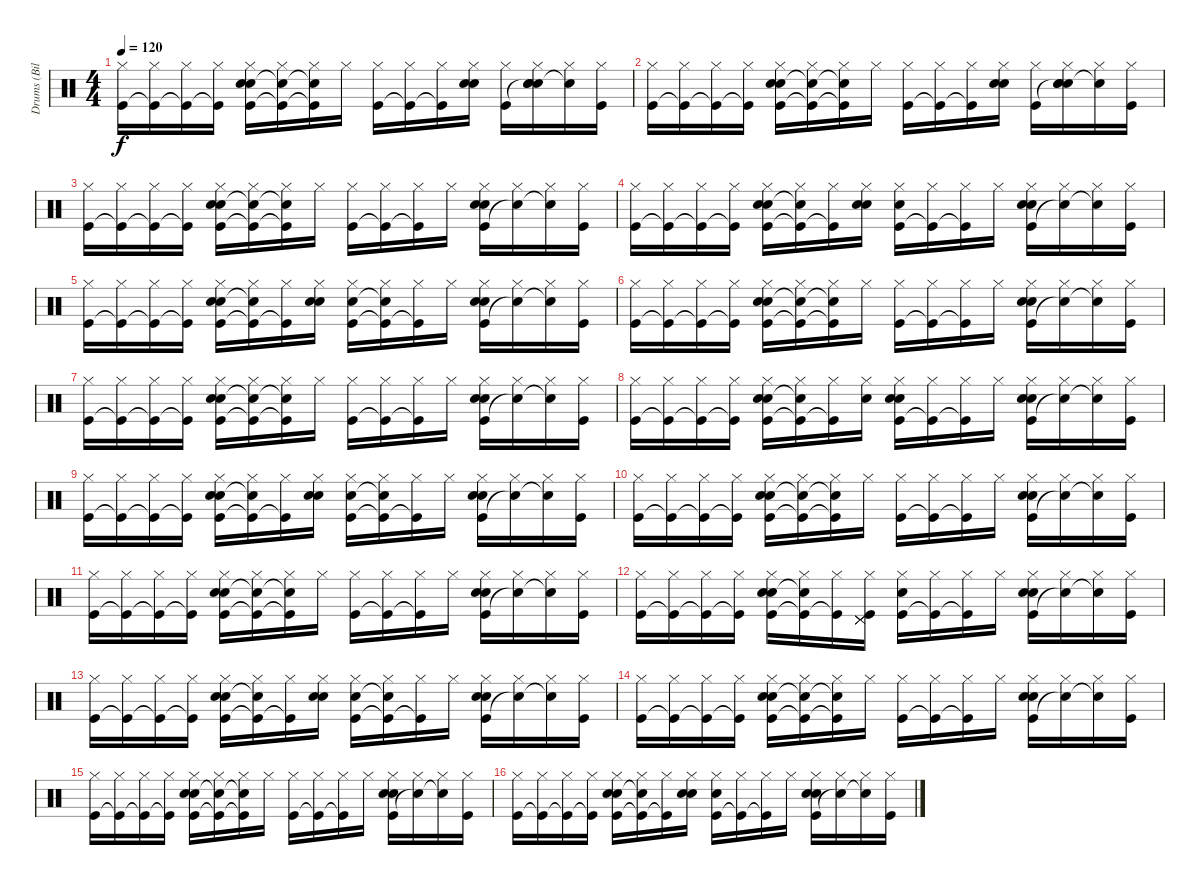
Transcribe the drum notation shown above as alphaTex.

\track ("Drums (Bilerman)" "Drums (Bil") {instrument percussion}
\staff {score}
\articulation defaults
\ts (4 4)
\tempo 120
\clef neutral
\ks c
("Kick (hit)" "Hi-Hat (closed)").16{dy f} ("Kick (hit)"{t} "Hi-Hat (closed)").16 ("Kick (hit)"{t} "Hi-Hat (closed)").16 ("Kick (hit)"{t} "Hi-Hat (closed)").16 ("Kick (hit)" "Snare (hit) 2" "Snare (hit) 2" "Hi-Hat (closed)").16 ("Kick (hit)"{t} "Snare (hit) 2"{t} "Hi-Hat (closed)").16 ("Kick (hit)"{t} "Snare (hit) 2"{t} "Hi-Hat (closed)").16 "Hi-Hat (closed)".16 ("Kick (hit)" "Hi-Hat (closed)").16 ("Kick (hit)"{t} "Hi-Hat (closed)").16 ("Kick (hit)"{t} "Hi-Hat (closed)").16 ("Snare (hit) 2" "Snare (hit) 2" "Hi-Hat (closed)").16 ("Kick (hit)" "Hi-Hat (closed)").16 ("Snare (hit)"{t} "Snare (hit) 2" "Snare (hit) 2" "Hi-Hat (closed)").16 ("Snare (hit) 2"{t} "Hi-Hat (closed)").16 ("Kick (hit)" "Hi-Hat (closed)").16 |
("Kick (hit)" "Hi-Hat (closed)").16 ("Kick (hit)"{t} "Hi-Hat (closed)").16 ("Kick (hit)"{t} "Hi-Hat (closed)").16 ("Kick (hit)"{t} "Hi-Hat (closed)").16 ("Kick (hit)" "Snare (hit) 2" "Snare (hit) 2" "Hi-Hat (closed)").16 ("Kick (hit)"{t} "Snare (hit) 2"{t} "Hi-Hat (closed)").16 ("Kick (hit)"{t} "Snare (hit) 2"{t} "Hi-Hat (closed)").16 "Hi-Hat (closed)".16 ("Kick (hit)" "Hi-Hat (closed)").16 ("Kick (hit)"{t} "Hi-Hat (closed)").16 ("Kick (hit)"{t} "Hi-Hat (closed)").16 ("Snare (hit) 2" "Snare (hit) 2" "Hi-Hat (closed)").16 ("Kick (hit)" "Hi-Hat (closed)").16 ("Snare (hit)"{t} "Snare (hit) 2" "Snare (hit) 2" "Hi-Hat (closed)").16 ("Snare (hit) 2"{t} "Hi-Hat (closed)").16 ("Kick (hit)" "Hi-Hat (closed)").16 |
("Kick (hit)" "Hi-Hat (closed)").16 ("Kick (hit)"{t} "Hi-Hat (closed)").16 ("Kick (hit)"{t} "Hi-Hat (closed)").16 ("Kick (hit)"{t} "Hi-Hat (closed)").16 ("Kick (hit)" "Snare (hit) 2" "Snare (hit) 2" "Hi-Hat (closed)").16 ("Kick (hit)"{t} "Snare (hit) 2"{t} "Hi-Hat (closed)").16 ("Kick (hit)"{t} "Snare (hit) 2"{t} "Hi-Hat (closed)").16 "Hi-Hat (closed)".16 ("Kick (hit)" "Hi-Hat (closed)").16 ("Kick (hit)"{t} "Hi-Hat (closed)").16 ("Kick (hit)"{t} "Hi-Hat (closed)").16 "Hi-Hat (closed)".16 ("Kick (hit)" "Snare (hit) 2" "Snare (hit) 2" "Hi-Hat (closed)").16 ("Snare (hit)"{t} "Hi-Hat (closed)").16 ("Snare (hit) 2"{t} "Hi-Hat (closed)").16 ("Kick (hit)" "Hi-Hat (closed)").16 |
("Kick (hit)" "Hi-Hat (closed)").16 ("Kick (hit)"{t} "Hi-Hat (closed)").16 ("Kick (hit)"{t} "Hi-Hat (closed)").16 ("Kick (hit)"{t} "Hi-Hat (closed)").16 ("Kick (hit)" "Snare (hit) 2" "Snare (hit) 2" "Hi-Hat (closed)").16 ("Kick (hit)"{t} "Snare (hit) 2"{t} "Hi-Hat (closed)").16 ("Kick (hit)"{t} "Hi-Hat (closed)").16 ("Snare (hit) 2" "Snare (hit) 2" "Hi-Hat (closed)").16 ("Kick (hit)" "Snare (hit) 2" "Hi-Hat (closed)").16 ("Kick (hit)"{t} "Hi-Hat (closed)").16 ("Kick (hit)"{t} "Hi-Hat (closed)").16 "Hi-Hat (closed)".16 ("Kick (hit)" "Snare (hit) 2" "Snare (hit) 2" "Hi-Hat (closed)").16 ("Snare (hit)"{t} "Hi-Hat (closed)").16 ("Snare (hit) 2"{t} "Hi-Hat (closed)").16 ("Kick (hit)" "Hi-Hat (closed)").16 |
("Kick (hit)" "Hi-Hat (closed)").16 ("Kick (hit)"{t} "Hi-Hat (closed)").16 ("Kick (hit)"{t} "Hi-Hat (closed)").16 ("Kick (hit)"{t} "Hi-Hat (closed)").16 ("Kick (hit)" "Snare (hit) 2" "Snare (hit) 2" "Hi-Hat (closed)").16 ("Kick (hit)"{t} "Snare (hit) 2"{t} "Hi-Hat (closed)").16 ("Kick (hit)"{t} "Hi-Hat (closed)").16 ("Snare (hit) 2" "Snare (hit) 2" "Hi-Hat (closed)").16 ("Kick (hit)" "Snare (hit) 2" "Hi-Hat (closed)").16 ("Kick (hit)"{t} "Snare (hit)"{t} "Hi-Hat (closed)").16 ("Kick (hit)"{t} "Hi-Hat (closed)").16 "Hi-Hat (closed)".16 ("Kick (hit)" "Snare (hit) 2" "Snare (hit) 2" "Hi-Hat (closed)").16 ("Snare (hit)"{t} "Hi-Hat (closed)").16 ("Snare (hit) 2"{t} "Hi-Hat (closed)").16 ("Kick (hit)" "Hi-Hat (closed)").16 |
("Kick (hit)" "Hi-Hat (closed)").16 ("Kick (hit)"{t} "Hi-Hat (closed)").16 ("Kick (hit)"{t} "Hi-Hat (closed)").16 ("Kick (hit)"{t} "Hi-Hat (closed)").16 ("Kick (hit)" "Snare (hit) 2" "Snare (hit) 2" "Hi-Hat (closed)").16 ("Kick (hit)"{t} "Snare (hit) 2"{t} "Hi-Hat (closed)").16 ("Kick (hit)"{t} "Snare (hit) 2"{t} "Hi-Hat (closed)").16 "Hi-Hat (closed)".16 ("Kick (hit)" "Hi-Hat (closed)").16 ("Kick (hit)"{t} "Hi-Hat (closed)").16 ("Kick (hit)"{t} "Hi-Hat (closed)").16 "Hi-Hat (closed)".16 ("Kick (hit)" "Snare (hit) 2" "Snare (hit) 2" "Hi-Hat (closed)").16 ("Snare (hit)"{t} "Hi-Hat (closed)").16 ("Snare (hit) 2"{t} "Hi-Hat (closed)").16 ("Kick (hit)" "Hi-Hat (closed)").16 |
("Kick (hit)" "Hi-Hat (closed)").16 ("Kick (hit)"{t} "Hi-Hat (closed)").16 ("Kick (hit)"{t} "Hi-Hat (closed)").16 ("Kick (hit)"{t} "Hi-Hat (closed)").16 ("Kick (hit)" "Snare (hit) 2" "Snare (hit) 2" "Hi-Hat (closed)").16 ("Kick (hit)"{t} "Snare (hit) 2"{t} "Hi-Hat (closed)").16 ("Kick (hit)"{t} "Snare (hit) 2"{t} "Hi-Hat (closed)").16 "Hi-Hat (closed)".16 ("Kick (hit)" "Hi-Hat (closed)").16 ("Kick (hit)"{t} "Hi-Hat (closed)").16 ("Kick (hit)"{t} "Hi-Hat (closed)").16 "Hi-Hat (closed)".16 ("Kick (hit)" "Snare (hit) 2" "Snare (hit) 2" "Hi-Hat (closed)").16 ("Snare (hit)"{t} "Hi-Hat (closed)").16 ("Snare (hit) 2"{t} "Hi-Hat (closed)").16 ("Kick (hit)" "Hi-Hat (closed)").16 |
("Kick (hit)" "Hi-Hat (closed)").16 ("Kick (hit)"{t} "Hi-Hat (closed)").16 ("Kick (hit)"{t} "Hi-Hat (closed)").16 ("Kick (hit)"{t} "Hi-Hat (closed)").16 ("Kick (hit)" "Snare (hit) 2" "Snare (hit) 2" "Hi-Hat (closed)").16 ("Kick (hit)"{t} "Snare (hit) 2"{t} "Hi-Hat (closed)").16 ("Kick (hit)"{t} "Hi-Hat (closed)").16 ("Snare (hit) 2" "Hi-Hat (closed)").16 ("Kick (hit)" "Snare (hit) 2" "Snare (hit) 2" "Hi-Hat (closed)").16 ("Kick (hit)"{t} "Hi-Hat (closed)").16 ("Kick (hit)"{t} "Hi-Hat (closed)").16 "Hi-Hat (closed)".16 ("Kick (hit)" "Snare (hit) 2" "Snare (hit) 2" "Hi-Hat (closed)").16 ("Snare (hit)"{t} "Hi-Hat (closed)").16 ("Snare (hit) 2"{t} "Hi-Hat (closed)").16 ("Kick (hit)" "Hi-Hat (closed)").16 |
("Kick (hit)" "Hi-Hat (closed)").16 ("Kick (hit)"{t} "Hi-Hat (closed)").16 ("Kick (hit)"{t} "Hi-Hat (closed)").16 ("Kick (hit)"{t} "Hi-Hat (closed)").16 ("Kick (hit)" "Snare (hit) 2" "Snare (hit) 2" "Hi-Hat (closed)").16 ("Kick (hit)"{t} "Snare (hit) 2"{t} "Hi-Hat (closed)").16 ("Kick (hit)"{t} "Hi-Hat (closed)").16 ("Snare (hit) 2" "Snare (hit) 2" "Hi-Hat (closed)").16 ("Kick (hit)" "Snare (hit) 2" "Hi-Hat (closed)").16 ("Kick (hit)"{t} "Snare (hit)"{t} "Hi-Hat (closed)").16 ("Kick (hit)"{t} "Hi-Hat (closed)").16 "Hi-Hat (closed)".16 ("Kick (hit)" "Snare (hit) 2" "Snare (hit) 2" "Hi-Hat (closed)").16 ("Snare (hit)"{t} "Hi-Hat (closed)").16 ("Snare (hit) 2"{t} "Hi-Hat (closed)").16 ("Kick (hit)" "Hi-Hat (closed)").16 |
("Kick (hit)" "Hi-Hat (closed)").16 ("Kick (hit)"{t} "Hi-Hat (closed)").16 ("Kick (hit)"{t} "Hi-Hat (closed)").16 ("Kick (hit)"{t} "Hi-Hat (closed)").16 ("Kick (hit)" "Snare (hit) 2" "Snare (hit) 2" "Hi-Hat (closed)").16 ("Kick (hit)"{t} "Snare (hit) 2"{t} "Hi-Hat (closed)").16 ("Kick (hit)"{t} "Snare (hit) 2"{t} "Hi-Hat (closed)").16 "Hi-Hat (closed)".16 ("Kick (hit)" "Hi-Hat (closed)").16 ("Kick (hit)"{t} "Hi-Hat (closed)").16 ("Kick (hit)"{t} "Hi-Hat (closed)").16 "Hi-Hat (closed)".16 ("Kick (hit)" "Snare (hit) 2" "Snare (hit) 2" "Hi-Hat (closed)").16 ("Snare (hit)"{t} "Hi-Hat (closed)").16 ("Snare (hit) 2"{t} "Hi-Hat (closed)").16 ("Kick (hit)" "Hi-Hat (closed)").16 |
("Kick (hit)" "Hi-Hat (closed)").16 ("Kick (hit)"{t} "Hi-Hat (closed)").16 ("Kick (hit)"{t} "Hi-Hat (closed)").16 ("Kick (hit)"{t} "Hi-Hat (closed)").16 ("Kick (hit)" "Snare (hit) 2" "Snare (hit) 2" "Hi-Hat (closed)").16 ("Kick (hit)"{t} "Snare (hit) 2"{t} "Hi-Hat (closed)").16 ("Kick (hit)"{t} "Snare (hit) 2"{t} "Hi-Hat (closed)").16 "Hi-Hat (closed)".16 ("Kick (hit)" "Hi-Hat (closed)").16 ("Kick (hit)"{t} "Hi-Hat (closed)").16 ("Kick (hit)"{t} "Hi-Hat (closed)").16 "Hi-Hat (closed)".16 ("Kick (hit)" "Snare (hit) 2" "Snare (hit) 2" "Hi-Hat (closed)").16 ("Snare (hit)"{t} "Hi-Hat (closed)").16 ("Snare (hit) 2"{t} "Hi-Hat (closed)").16 ("Kick (hit)" "Hi-Hat (closed)").16 |
("Kick (hit)" "Hi-Hat (closed)").16 ("Kick (hit)"{t} "Hi-Hat (closed)").16 ("Kick (hit)"{t} "Hi-Hat (closed)").16 ("Kick (hit)"{t} "Hi-Hat (closed)").16 ("Kick (hit)" "Snare (hit) 2" "Snare (hit) 2" "Hi-Hat (closed)").16 ("Kick (hit)"{t} "Snare (hit) 2"{t} "Hi-Hat (closed)").16 ("Kick (hit)"{t} "Hi-Hat (closed)").16 ("Kick (hit)" "Pedal Hi-Hat (hit)" "Pedal Hi-Hat (hit)" "Pedal Hi-Hat (hit)" "Hi-Hat (closed)").16 ("Kick (hit)" "Snare (hit) 2" "Hi-Hat (closed)").16 ("Kick (hit)"{t} "Hi-Hat (closed)").16 ("Kick (hit)"{t} "Hi-Hat (closed)").16 "Hi-Hat (closed)".16 ("Kick (hit)" "Snare (hit) 2" "Snare (hit) 2" "Hi-Hat (closed)").16 ("Snare (hit)"{t} "Hi-Hat (closed)").16 ("Snare (hit) 2"{t} "Hi-Hat (closed)").16 ("Kick (hit)" "Hi-Hat (closed)").16 |
("Kick (hit)" "Hi-Hat (closed)").16 ("Kick (hit)"{t} "Hi-Hat (closed)").16 ("Kick (hit)"{t} "Hi-Hat (closed)").16 ("Kick (hit)"{t} "Hi-Hat (closed)").16 ("Kick (hit)" "Snare (hit) 2" "Snare (hit) 2" "Hi-Hat (closed)").16 ("Kick (hit)"{t} "Snare (hit) 2"{t} "Hi-Hat (closed)").16 ("Kick (hit)"{t} "Hi-Hat (closed)").16 ("Snare (hit) 2" "Snare (hit) 2" "Hi-Hat (closed)").16 ("Kick (hit)" "Snare (hit) 2" "Hi-Hat (closed)").16 ("Kick (hit)"{t} "Snare (hit)"{t} "Hi-Hat (closed)").16 ("Kick (hit)"{t} "Hi-Hat (closed)").16 "Hi-Hat (closed)".16 ("Kick (hit)" "Snare (hit) 2" "Snare (hit) 2" "Hi-Hat (closed)").16 ("Snare (hit)"{t} "Hi-Hat (closed)").16 ("Snare (hit) 2"{t} "Hi-Hat (closed)").16 ("Kick (hit)" "Hi-Hat (closed)").16 |
("Kick (hit)" "Hi-Hat (closed)").16 ("Kick (hit)"{t} "Hi-Hat (closed)").16 ("Kick (hit)"{t} "Hi-Hat (closed)").16 ("Kick (hit)"{t} "Hi-Hat (closed)").16 ("Kick (hit)" "Snare (hit) 2" "Snare (hit) 2" "Hi-Hat (closed)").16 ("Kick (hit)"{t} "Snare (hit) 2"{t} "Hi-Hat (closed)").16 ("Kick (hit)"{t} "Snare (hit) 2"{t} "Hi-Hat (closed)").16 "Hi-Hat (closed)".16 ("Kick (hit)" "Hi-Hat (closed)").16 ("Kick (hit)"{t} "Hi-Hat (closed)").16 ("Kick (hit)"{t} "Hi-Hat (closed)").16 "Hi-Hat (closed)".16 ("Kick (hit)" "Snare (hit) 2" "Snare (hit) 2" "Hi-Hat (closed)").16 ("Snare (hit)"{t} "Hi-Hat (closed)").16 ("Snare (hit) 2"{t} "Hi-Hat (closed)").16 ("Kick (hit)" "Hi-Hat (closed)").16 |
("Kick (hit)" "Hi-Hat (closed)").16 ("Kick (hit)"{t} "Hi-Hat (closed)").16 ("Kick (hit)"{t} "Hi-Hat (closed)").16 ("Kick (hit)"{t} "Hi-Hat (closed)").16 ("Kick (hit)" "Snare (hit) 2" "Snare (hit) 2" "Hi-Hat (closed)").16 ("Kick (hit)"{t} "Snare (hit) 2"{t} "Hi-Hat (closed)").16 ("Kick (hit)"{t} "Snare (hit) 2"{t} "Hi-Hat (closed)").16 "Hi-Hat (closed)".16 ("Kick (hit)" "Hi-Hat (closed)").16 ("Kick (hit)"{t} "Hi-Hat (closed)").16 ("Kick (hit)"{t} "Hi-Hat (closed)").16 "Hi-Hat (closed)".16 ("Kick (hit)" "Snare (hit) 2" "Snare (hit) 2" "Hi-Hat (closed)").16 ("Snare (hit)"{t} "Hi-Hat (closed)").16 ("Snare (hit) 2"{t} "Hi-Hat (closed)").16 ("Kick (hit)" "Hi-Hat (closed)").16 |
("Kick (hit)" "Hi-Hat (closed)").16 ("Kick (hit)"{t} "Hi-Hat (closed)").16 ("Kick (hit)"{t} "Hi-Hat (closed)").16 ("Kick (hit)"{t} "Hi-Hat (closed)").16 ("Kick (hit)" "Snare (hit) 2" "Snare (hit) 2" "Hi-Hat (closed)").16 ("Kick (hit)"{t} "Snare (hit) 2"{t} "Hi-Hat (closed)").16 ("Kick (hit)"{t} "Hi-Hat (closed)").16 ("Snare (hit) 2" "Snare (hit) 2" "Hi-Hat (closed)").16 ("Kick (hit)" "Snare (hit) 2" "Hi-Hat (closed)").16 ("Kick (hit)"{t} "Hi-Hat (closed)").16 ("Kick (hit)"{t} "Hi-Hat (closed)").16 "Hi-Hat (closed)".16 ("Kick (hit)" "Snare (hit) 2" "Snare (hit) 2" "Hi-Hat (closed)").16 ("Snare (hit)"{t} "Hi-Hat (closed)").16 ("Snare (hit) 2"{t} "Hi-Hat (closed)").16 ("Kick (hit)" "Hi-Hat (closed)").16
